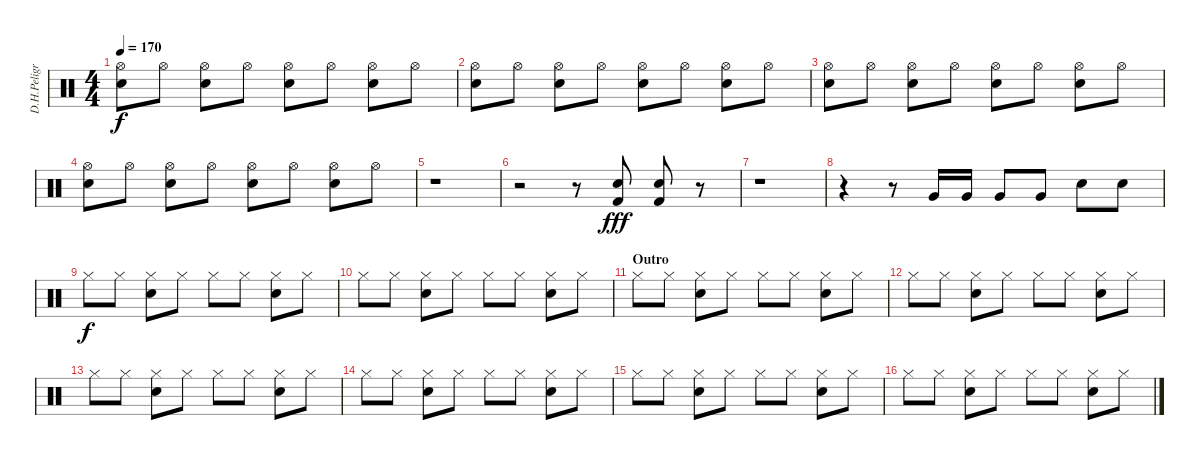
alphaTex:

\track ("D.H.Peligro" "D.H.Peligr") {instrument percussion}
\staff {score}
\articulation defaults
\ts (4 4)
\tempo 170
\clef neutral
\ks c
("Hi-Hat (open)" "Electric Snare (hit)").8{dy f} "Hi-Hat (open)".8 ("Hi-Hat (open)" "Electric Snare (hit)").8 "Hi-Hat (open)".8 ("Hi-Hat (open)" "Electric Snare (hit)").8 "Hi-Hat (open)".8 ("Hi-Hat (open)" "Electric Snare (hit)").8 "Hi-Hat (open)".8 |
("Hi-Hat (open)" "Electric Snare (hit)").8 "Hi-Hat (open)".8 ("Hi-Hat (open)" "Electric Snare (hit)").8 "Hi-Hat (open)".8 ("Hi-Hat (open)" "Electric Snare (hit)").8 "Hi-Hat (open)".8 ("Hi-Hat (open)" "Electric Snare (hit)").8 "Hi-Hat (open)".8 |
("Hi-Hat (open)" "Electric Snare (hit)").8 "Hi-Hat (open)".8 ("Hi-Hat (open)" "Electric Snare (hit)").8 "Hi-Hat (open)".8 ("Hi-Hat (open)" "Electric Snare (hit)").8 "Hi-Hat (open)".8 ("Hi-Hat (open)" "Electric Snare (hit)").8 "Hi-Hat (open)".8 |
("Hi-Hat (open)" "Electric Snare (hit)").8 "Hi-Hat (open)".8 ("Hi-Hat (open)" "Electric Snare (hit)").8 "Hi-Hat (open)".8 ("Hi-Hat (open)" "Electric Snare (hit)").8 "Hi-Hat (open)".8 ("Hi-Hat (open)" "Electric Snare (hit)").8 "Hi-Hat (open)".8 |
r.1 |
r.2 r.8 ("Electric Snare (hit)" "Kick (hit) 2").8{dy fff} ("Electric Snare (hit)" "Kick (hit) 2").8 r.8 |
r.1 |
r.4 r.8 "Very Low Tom (hit)".16 "Very Low Tom (hit)".16 "Very Low Tom (hit)".8 "Very Low Tom (hit)".8 "Electric Snare (hit)".8 "Electric Snare (hit)".8 |
"Hi-Hat (closed)".8{dy f} "Hi-Hat (closed)".8 ("Hi-Hat (closed)" "Electric Snare (hit)").8 "Hi-Hat (closed)".8 "Hi-Hat (closed)".8 "Hi-Hat (closed)".8 ("Hi-Hat (closed)" "Electric Snare (hit)").8 "Hi-Hat (closed)".8 |
"Hi-Hat (closed)".8 "Hi-Hat (closed)".8 ("Hi-Hat (closed)" "Electric Snare (hit)").8 "Hi-Hat (closed)".8 "Hi-Hat (closed)".8 "Hi-Hat (closed)".8 ("Hi-Hat (closed)" "Electric Snare (hit)").8 "Hi-Hat (closed)".8 |
\section ("" "Outro")
"Hi-Hat (closed)".8 "Hi-Hat (closed)".8 ("Hi-Hat (closed)" "Electric Snare (hit)").8 "Hi-Hat (closed)".8 "Hi-Hat (closed)".8 "Hi-Hat (closed)".8 ("Hi-Hat (closed)" "Electric Snare (hit)").8 "Hi-Hat (closed)".8 |
"Hi-Hat (closed)".8 "Hi-Hat (closed)".8 ("Hi-Hat (closed)" "Electric Snare (hit)").8 "Hi-Hat (closed)".8 "Hi-Hat (closed)".8 "Hi-Hat (closed)".8 ("Hi-Hat (closed)" "Electric Snare (hit)").8 "Hi-Hat (closed)".8 |
"Hi-Hat (closed)".8 "Hi-Hat (closed)".8 ("Hi-Hat (closed)" "Electric Snare (hit)").8 "Hi-Hat (closed)".8 "Hi-Hat (closed)".8 "Hi-Hat (closed)".8 ("Hi-Hat (closed)" "Electric Snare (hit)").8 "Hi-Hat (closed)".8 |
"Hi-Hat (closed)".8 "Hi-Hat (closed)".8 ("Hi-Hat (closed)" "Electric Snare (hit)").8 "Hi-Hat (closed)".8 "Hi-Hat (closed)".8 "Hi-Hat (closed)".8 ("Hi-Hat (closed)" "Electric Snare (hit)").8 "Hi-Hat (closed)".8 |
"Hi-Hat (closed)".8 "Hi-Hat (closed)".8 ("Hi-Hat (closed)" "Electric Snare (hit)").8 "Hi-Hat (closed)".8 "Hi-Hat (closed)".8 "Hi-Hat (closed)".8 ("Hi-Hat (closed)" "Electric Snare (hit)").8 "Hi-Hat (closed)".8 |
"Hi-Hat (closed)".8 "Hi-Hat (closed)".8 ("Hi-Hat (closed)" "Electric Snare (hit)").8 "Hi-Hat (closed)".8 "Hi-Hat (closed)".8 "Hi-Hat (closed)".8 ("Hi-Hat (closed)" "Electric Snare (hit)").8 "Hi-Hat (closed)".8
